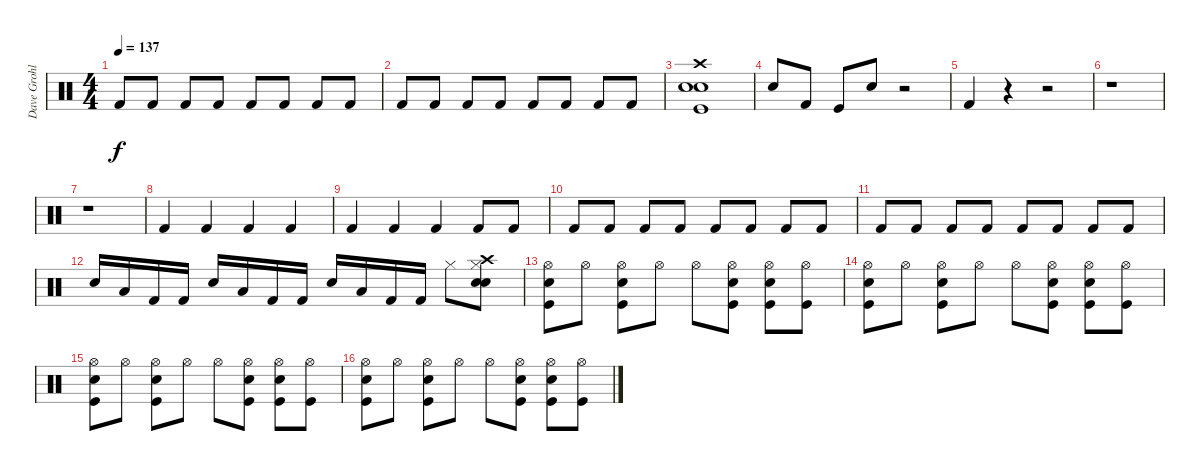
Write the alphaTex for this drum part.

\track ("Dave Grohl" "Dave Grohl") {instrument percussion}
\staff {score}
\articulation defaults
\ts (4 4)
\tempo 137
\clef neutral
\ks c "Kick (hit) 2".8{dy f} "Kick (hit) 2".8 "Kick (hit) 2".8 "Kick (hit) 2".8 "Kick (hit) 2".8 "Kick (hit) 2".8 "Kick (hit) 2".8 "Kick (hit) 2".8
|
"Kick (hit) 2".8 "Kick (hit) 2".8 "Kick (hit) 2".8 "Kick (hit) 2".8 "Kick (hit) 2".8 "Kick (hit) 2".8 "Kick (hit) 2".8 "Kick (hit) 2".8 |
("Electric Snare (hit)" "Kick (hit)" "Crash high (hit)" "Snare (hit) 2").1 |
"Snare (hit) 2".8 "Kick (hit) 2".8 "Kick (hit)".8 "Snare (hit) 2".8 r.2 |
"Kick (hit) 2".4 r.4 r.2 |
r.1 |
r.1 |
"Kick (hit) 2".4 "Kick (hit) 2".4 "Kick (hit) 2".4 "Kick (hit) 2".4 |
"Kick (hit) 2".4 "Kick (hit) 2".4 "Kick (hit) 2".4 "Kick (hit) 2".8 "Kick (hit) 2".8 |
"Kick (hit) 2".8 "Kick (hit) 2".8 "Kick (hit) 2".8 "Kick (hit) 2".8 "Kick (hit) 2".8 "Kick (hit) 2".8 "Kick (hit) 2".8 "Kick (hit) 2".8 |
"Kick (hit) 2".8 "Kick (hit) 2".8 "Kick (hit) 2".8 "Kick (hit) 2".8 "Kick (hit) 2".8 "Kick (hit) 2".8 "Kick (hit) 2".8 "Kick (hit) 2".8 |
"Snare (hit) 2".16 "Low Floor Tom (hit)".16 "Kick (hit) 2".16 "Kick (hit) 2".16 "Snare (hit) 2".16 "Low Floor Tom (hit)".16 "Kick (hit) 2".16 "Kick (hit) 2".16 "Snare (hit) 2".16 "Low Floor Tom (hit)".16 "Kick (hit) 2".16 "Kick (hit) 2".16 "Hi-Hat (closed)".8 ("Electric Snare (hit)" "Crash high (hit)" "Snare (hit) 2" "Hi-Hat (closed)").8 |
("Snare (hit) 2" "Hi-Hat (open)" "Kick (hit)").8 "Hi-Hat (open)".8 ("Electric Snare (hit)" "Hi-Hat (open)" "Kick (hit)").8 "Hi-Hat (open)".8 "Hi-Hat (open)".8 ("Electric Snare (hit)" "Hi-Hat (open)" "Kick (hit)").8 ("Electric Snare (hit)" "Hi-Hat (open)" "Kick (hit)").8 ("Hi-Hat (open)" "Kick (hit)").8 |
("Snare (hit) 2" "Hi-Hat (open)" "Kick (hit)").8 "Hi-Hat (open)".8 ("Electric Snare (hit)" "Hi-Hat (open)" "Kick (hit)").8 "Hi-Hat (open)".8 "Hi-Hat (open)".8 ("Electric Snare (hit)" "Hi-Hat (open)" "Kick (hit)").8 ("Electric Snare (hit)" "Hi-Hat (open)" "Kick (hit)").8 ("Hi-Hat (open)" "Kick (hit)").8 |
("Snare (hit) 2" "Hi-Hat (open)" "Kick (hit)").8 "Hi-Hat (open)".8 ("Electric Snare (hit)" "Hi-Hat (open)" "Kick (hit)").8 "Hi-Hat (open)".8 "Hi-Hat (open)".8 ("Electric Snare (hit)" "Hi-Hat (open)" "Kick (hit)").8 ("Electric Snare (hit)" "Hi-Hat (open)" "Kick (hit)").8 ("Hi-Hat (open)" "Kick (hit)").8 |
("Snare (hit) 2" "Hi-Hat (open)" "Kick (hit)").8 "Hi-Hat (open)".8 ("Electric Snare (hit)" "Hi-Hat (open)" "Kick (hit)").8 "Hi-Hat (open)".8 "Hi-Hat (open)".8 ("Electric Snare (hit)" "Hi-Hat (open)" "Kick (hit)").8 ("Electric Snare (hit)" "Hi-Hat (open)" "Kick (hit)").8 ("Hi-Hat (open)" "Kick (hit)").8
